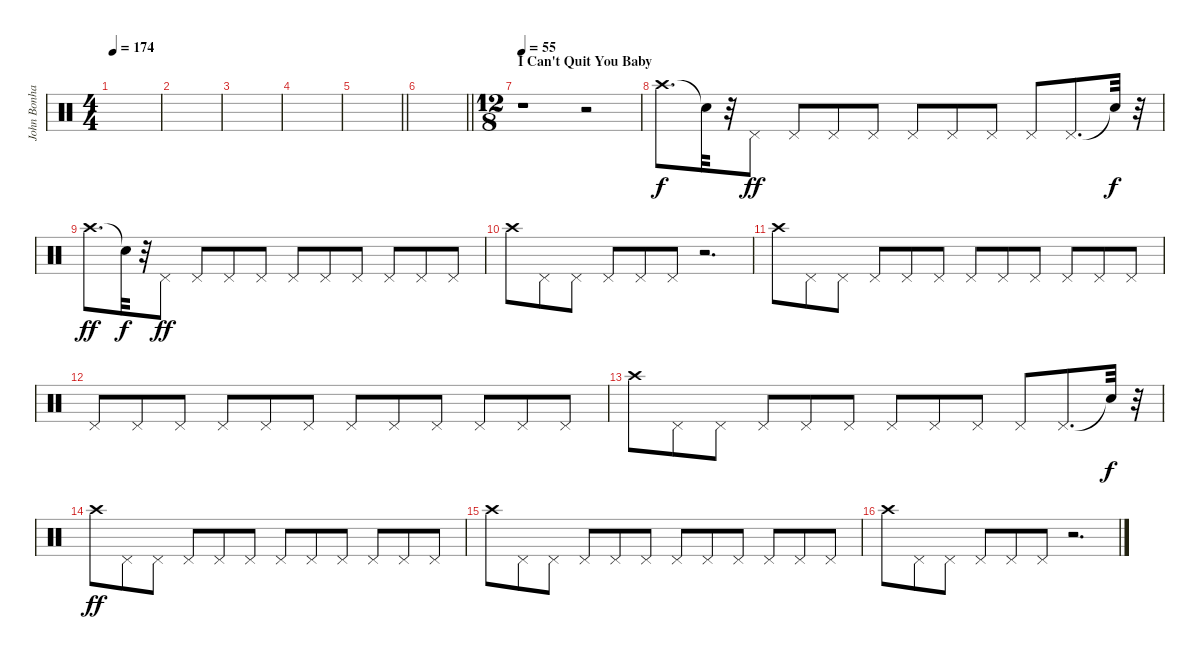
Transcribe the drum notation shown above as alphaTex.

\track ("John Bonham - Drums" "John Bonha") {instrument percussion}
\staff {score}
\articulation defaults
\ts (4 4)
\tempo 174
\clef neutral
\ks c
|
|
|
|
\barLineRight lightlight
|
\barLineRight lightlight
|
\ts (12 8)
\section ("" "I Can't Quit You Baby")
\tempo 55
r.1{volume 15 balance 8} r.2 |
"Crash high (hit)".8{d} "Snare (hit)"{t}.32{dy f} r.32 "Pedal Hi-Hat (hit)".8{dy ff} "Pedal Hi-Hat (hit)".8 "Pedal Hi-Hat (hit)".8 "Pedal Hi-Hat (hit)".8 "Pedal Hi-Hat (hit)".8 "Pedal Hi-Hat (hit)".8 "Pedal Hi-Hat (hit)".8 "Pedal Hi-Hat (hit)".8 "Pedal Hi-Hat (hit)".8{d} "Snare (hit)"{t}.32{dy f} r.32 |
"Crash high (hit)".8{d dy ff} "Snare (hit)"{t}.32{dy f} r.32 "Pedal Hi-Hat (hit)".8{dy ff} "Pedal Hi-Hat (hit)".8 "Pedal Hi-Hat (hit)".8 "Pedal Hi-Hat (hit)".8 "Pedal Hi-Hat (hit)".8 "Pedal Hi-Hat (hit)".8 "Pedal Hi-Hat (hit)".8 "Pedal Hi-Hat (hit)".8 "Pedal Hi-Hat (hit)".8 "Pedal Hi-Hat (hit)".8 |
"Crash high (hit)".8 "Pedal Hi-Hat (hit)".8 "Pedal Hi-Hat (hit)".8 "Pedal Hi-Hat (hit)".8 "Pedal Hi-Hat (hit)".8 "Pedal Hi-Hat (hit)".8 r.2{d} |
"Crash high (hit)".8 "Pedal Hi-Hat (hit)".8 "Pedal Hi-Hat (hit)".8 "Pedal Hi-Hat (hit)".8 "Pedal Hi-Hat (hit)".8 "Pedal Hi-Hat (hit)".8 "Pedal Hi-Hat (hit)".8 "Pedal Hi-Hat (hit)".8 "Pedal Hi-Hat (hit)".8 "Pedal Hi-Hat (hit)".8 "Pedal Hi-Hat (hit)".8 "Pedal Hi-Hat (hit)".8 |
"Pedal Hi-Hat (hit)".8 "Pedal Hi-Hat (hit)".8 "Pedal Hi-Hat (hit)".8 "Pedal Hi-Hat (hit)".8 "Pedal Hi-Hat (hit)".8 "Pedal Hi-Hat (hit)".8 "Pedal Hi-Hat (hit)".8 "Pedal Hi-Hat (hit)".8 "Pedal Hi-Hat (hit)".8 "Pedal Hi-Hat (hit)".8 "Pedal Hi-Hat (hit)".8 "Pedal Hi-Hat (hit)".8 |
"Crash high (hit)".8 "Pedal Hi-Hat (hit)".8 "Pedal Hi-Hat (hit)".8 "Pedal Hi-Hat (hit)".8 "Pedal Hi-Hat (hit)".8 "Pedal Hi-Hat (hit)".8 "Pedal Hi-Hat (hit)".8 "Pedal Hi-Hat (hit)".8 "Pedal Hi-Hat (hit)".8 "Pedal Hi-Hat (hit)".8 "Pedal Hi-Hat (hit)".8{d} "Snare (hit)"{t}.32{dy f} r.32 |
"Crash high (hit)".8{dy ff} "Pedal Hi-Hat (hit)".8 "Pedal Hi-Hat (hit)".8 "Pedal Hi-Hat (hit)".8 "Pedal Hi-Hat (hit)".8 "Pedal Hi-Hat (hit)".8 "Pedal Hi-Hat (hit)".8 "Pedal Hi-Hat (hit)".8 "Pedal Hi-Hat (hit)".8 "Pedal Hi-Hat (hit)".8 "Pedal Hi-Hat (hit)".8 "Pedal Hi-Hat (hit)".8 |
"Crash high (hit)".8 "Pedal Hi-Hat (hit)".8 "Pedal Hi-Hat (hit)".8 "Pedal Hi-Hat (hit)".8 "Pedal Hi-Hat (hit)".8 "Pedal Hi-Hat (hit)".8 "Pedal Hi-Hat (hit)".8 "Pedal Hi-Hat (hit)".8 "Pedal Hi-Hat (hit)".8 "Pedal Hi-Hat (hit)".8 "Pedal Hi-Hat (hit)".8 "Pedal Hi-Hat (hit)".8 |
"Crash high (hit)".8 "Pedal Hi-Hat (hit)".8 "Pedal Hi-Hat (hit)".8 "Pedal Hi-Hat (hit)".8 "Pedal Hi-Hat (hit)".8 "Pedal Hi-Hat (hit)".8 r.2{d}
